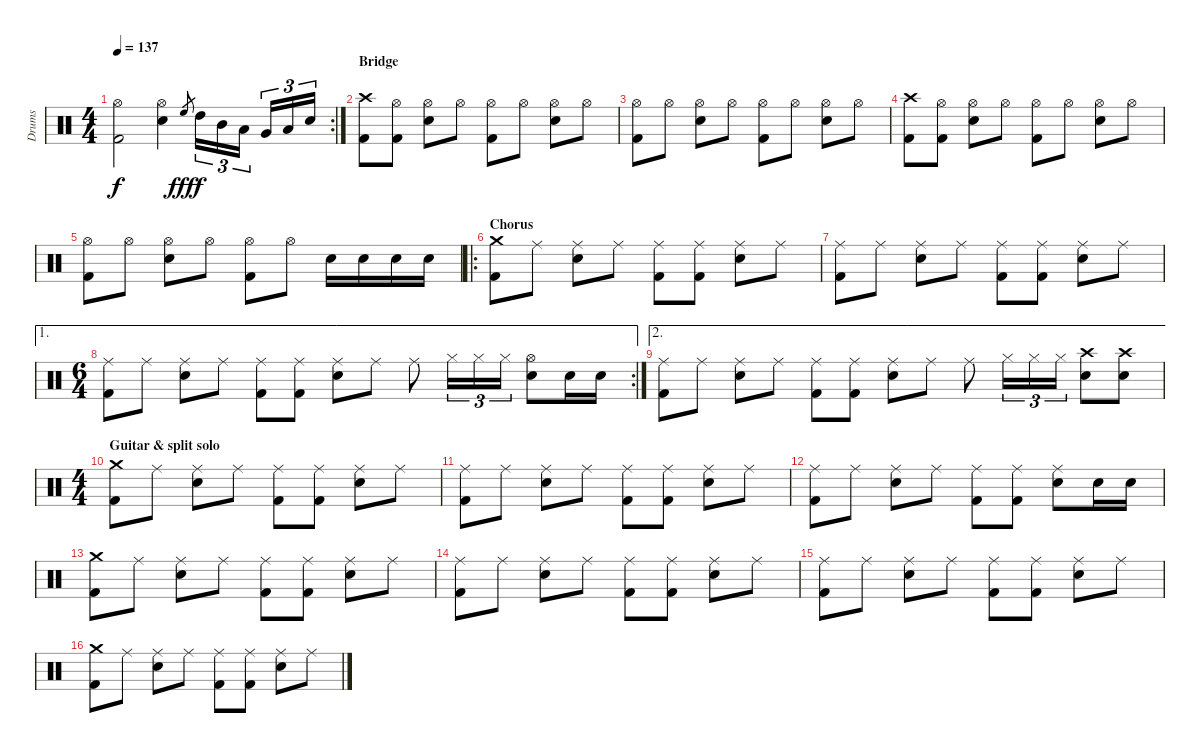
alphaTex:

\track ("Drums" "Drums") {instrument percussion}
\staff {score}
\articulation defaults
\rc 2
\ts (4 4)
\tempo 137
\clef neutral
\ks c
("Hi-Hat (open)" "Kick (hit) 2").2{dy f} ("Hi-Hat (open)" "Electric Snare (hit)").4 "High Floor Tom (hit)".8{gr dy fff} "High Tom (hit)".16{tu (3 2) dy f} "Mid Tom (hit)".16{tu (3 2)} "Low Tom (hit)".16{tu (3 2)} "Very Low Tom (hit)".16{tu (3 2)} "Low Floor Tom (hit)".16{tu (3 2)} "Electric Snare (hit)".16{tu (3 2)} |
\section ("" "Bridge")
("Crash high (hit)" "Kick (hit) 2").8 ("Hi-Hat (open)" "Kick (hit) 2").8 ("Hi-Hat (open)" "Electric Snare (hit)").8 "Hi-Hat (open)".8 ("Hi-Hat (open)" "Kick (hit) 2").8 "Hi-Hat (open)".8 ("Hi-Hat (open)" "Electric Snare (hit)").8 "Hi-Hat (open)".8 |
("Hi-Hat (open)" "Kick (hit) 2").8 "Hi-Hat (open)".8 ("Hi-Hat (open)" "Electric Snare (hit)").8 "Hi-Hat (open)".8 ("Hi-Hat (open)" "Kick (hit) 2").8 "Hi-Hat (open)".8 ("Hi-Hat (open)" "Electric Snare (hit)").8 "Hi-Hat (open)".8 |
("Crash high (hit)" "Kick (hit) 2").8 ("Hi-Hat (open)" "Kick (hit) 2").8 ("Hi-Hat (open)" "Electric Snare (hit)").8 "Hi-Hat (open)".8 ("Hi-Hat (open)" "Kick (hit) 2").8 "Hi-Hat (open)".8 ("Hi-Hat (open)" "Electric Snare (hit)").8 "Hi-Hat (open)".8 |
("Hi-Hat (open)" "Kick (hit) 2").8 "Hi-Hat (open)".8 ("Hi-Hat (open)" "Electric Snare (hit)").8 "Hi-Hat (open)".8 ("Hi-Hat (open)" "Kick (hit) 2").8 "Hi-Hat (open)".8 "Electric Snare (hit)".16 "Electric Snare (hit)".16 "Electric Snare (hit)".16 "Electric Snare (hit)".16 |
\ro
\section ("" "Chorus")
("Crash medium (hit)" "Kick (hit) 2").8 "Ride (middle)".8 ("Ride (middle)" "Electric Snare (hit)").8 "Ride (middle)".8 ("Ride (middle)" "Kick (hit) 2").8 ("Ride (middle)" "Kick (hit) 2").8 ("Ride (middle)" "Electric Snare (hit)").8 "Ride (middle)".8 |
("Ride (middle)" "Kick (hit) 2").8 "Ride (middle)".8 ("Ride (middle)" "Electric Snare (hit)").8 "Ride (middle)".8 ("Ride (middle)" "Kick (hit) 2").8 ("Ride (middle)" "Kick (hit) 2").8 ("Ride (middle)" "Electric Snare (hit)").8 "Ride (middle)".8 |
\ae 1
\rc 2
\ts (6 4)
("Ride (middle)" "Kick (hit) 2").8 "Ride (middle)".8 ("Ride (middle)" "Electric Snare (hit)").8 "Ride (middle)".8 ("Ride (middle)" "Kick (hit) 2").8 ("Ride (middle)" "Kick (hit) 2").8 ("Ride (middle)" "Electric Snare (hit)").8 "Ride (middle)".8 "Ride (middle)".8 "Hi-Hat (closed)".16{tu (3 2)} "Hi-Hat (closed)".16{tu (3 2)} "Hi-Hat (closed)".16{tu (3 2)} ("Hi-Hat (open)" "Electric Snare (hit)").8 "Electric Snare (hit)".16 "Electric Snare (hit)".16 |
\ae 2
("Ride (middle)" "Kick (hit) 2").8 "Ride (middle)".8 ("Ride (middle)" "Electric Snare (hit)").8 "Ride (middle)".8 ("Ride (middle)" "Kick (hit) 2").8 ("Ride (middle)" "Kick (hit) 2").8 ("Ride (middle)" "Electric Snare (hit)").8 "Ride (middle)".8 "Ride (middle)".8 "Hi-Hat (closed)".16{tu (3 2)} "Hi-Hat (closed)".16{tu (3 2)} "Hi-Hat (closed)".16{tu (3 2)} ("Crash high (hit)" "Electric Snare (hit)").8 ("Crash high (hit)" "Electric Snare (hit)").8 |
\ts (4 4)
\section ("" "Guitar & split solo")
("Crash medium (hit)" "Kick (hit) 2").8 "Ride (middle)".8 ("Ride (middle)" "Electric Snare (hit)").8 "Ride (middle)".8 ("Ride (middle)" "Kick (hit) 2").8 ("Ride (middle)" "Kick (hit) 2").8 ("Ride (middle)" "Electric Snare (hit)").8 "Ride (middle)".8 |
("Ride (middle)" "Kick (hit) 2").8 "Ride (middle)".8 ("Ride (middle)" "Electric Snare (hit)").8 "Ride (middle)".8 ("Ride (middle)" "Kick (hit) 2").8 ("Ride (middle)" "Kick (hit) 2").8 ("Ride (middle)" "Electric Snare (hit)").8 "Ride (middle)".8 |
("Ride (middle)" "Kick (hit) 2").8 "Ride (middle)".8 ("Ride (middle)" "Electric Snare (hit)").8 "Ride (middle)".8 ("Ride (middle)" "Kick (hit) 2").8 ("Ride (middle)" "Kick (hit) 2").8 ("Ride (middle)" "Electric Snare (hit)").8 "Electric Snare (hit)".16 "Electric Snare (hit)".16 |
("Crash medium (hit)" "Kick (hit) 2").8 "Ride (middle)".8 ("Ride (middle)" "Electric Snare (hit)").8 "Ride (middle)".8 ("Ride (middle)" "Kick (hit) 2").8 ("Ride (middle)" "Kick (hit) 2").8 ("Ride (middle)" "Electric Snare (hit)").8 "Ride (middle)".8 |
("Ride (middle)" "Kick (hit) 2").8 "Ride (middle)".8 ("Ride (middle)" "Electric Snare (hit)").8 "Ride (middle)".8 ("Ride (middle)" "Kick (hit) 2").8 ("Ride (middle)" "Kick (hit) 2").8 ("Ride (middle)" "Electric Snare (hit)").8 "Ride (middle)".8 |
("Ride (middle)" "Kick (hit) 2").8 "Ride (middle)".8 ("Ride (middle)" "Electric Snare (hit)").8 "Ride (middle)".8 ("Ride (middle)" "Kick (hit) 2").8 ("Ride (middle)" "Kick (hit) 2").8 ("Ride (middle)" "Electric Snare (hit)").8 "Ride (middle)".8 |
("Crash medium (hit)" "Kick (hit) 2").8 "Ride (middle)".8 ("Ride (middle)" "Electric Snare (hit)").8 "Ride (middle)".8 ("Ride (middle)" "Kick (hit) 2").8 ("Ride (middle)" "Kick (hit) 2").8 ("Ride (middle)" "Electric Snare (hit)").8 "Ride (middle)".8
